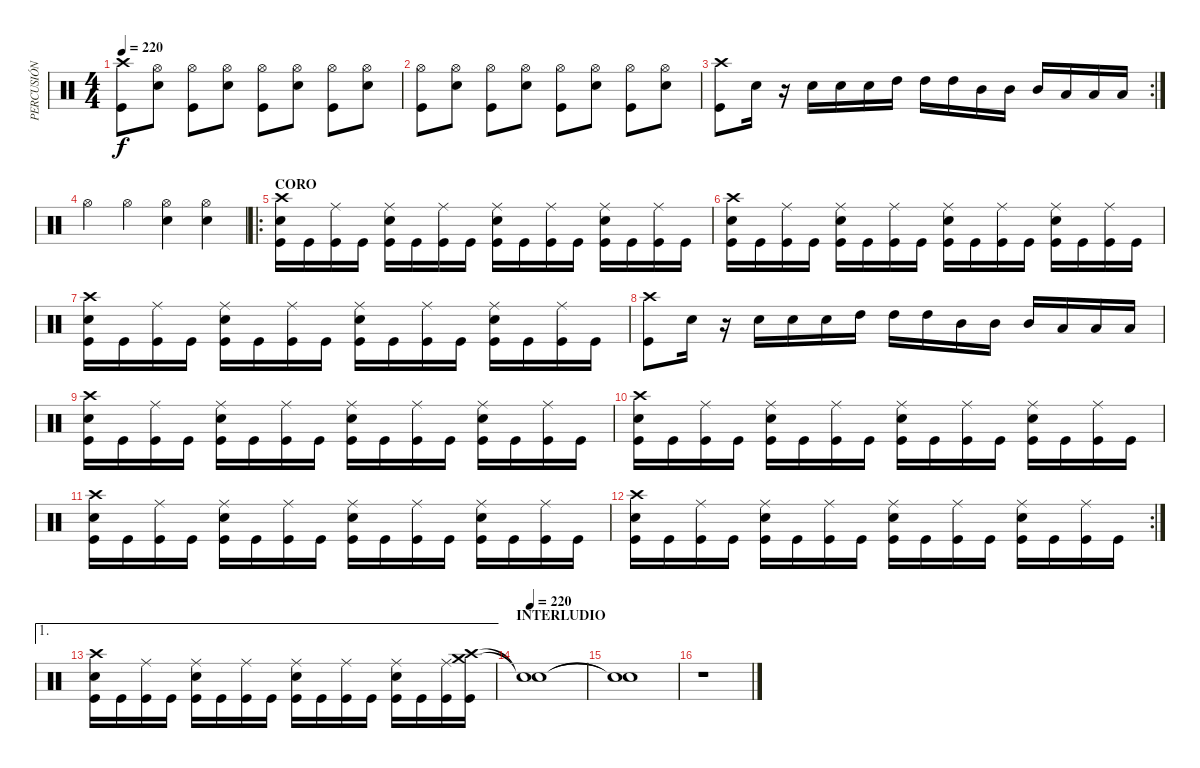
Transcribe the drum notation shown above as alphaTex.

\track ("PERCUSIÓN" "PERCUSIÓN") {instrument percussion}
\staff {score}
\articulation defaults
\ts (4 4)
\tempo 220
\clef neutral
\ks c
("Crash high (hit)" "Kick (hit)").8{dy f} ("Hi-Hat (open)" "Snare (hit) 2").8 ("Hi-Hat (open)" "Kick (hit)").8 ("Hi-Hat (open)" "Snare (hit) 2").8 ("Hi-Hat (open)" "Kick (hit)").8 ("Hi-Hat (open)" "Snare (hit) 2").8 ("Hi-Hat (open)" "Kick (hit)").8 ("Hi-Hat (open)" "Snare (hit) 2").8 |
("Hi-Hat (open)" "Kick (hit)").8 ("Hi-Hat (open)" "Snare (hit) 2").8 ("Hi-Hat (open)" "Kick (hit)").8 ("Hi-Hat (open)" "Snare (hit) 2").8 ("Hi-Hat (open)" "Kick (hit)").8 ("Hi-Hat (open)" "Snare (hit) 2").8 ("Hi-Hat (open)" "Kick (hit)").8 ("Hi-Hat (open)" "Snare (hit) 2").8 |
\rc 2
("Crash high (hit)" "Kick (hit)").8 "Snare (hit) 2".16 r.16 "Snare (hit) 2".16 "Snare (hit) 2".16 "Snare (hit) 2".16 "High Tom (hit)".16 "High Tom (hit)".16 "High Tom (hit)".16 "Mid Tom (hit)".16 "Mid Tom (hit)".16 "Mid Tom (hit)".16 "Low Tom (hit)".16 "Low Tom (hit)".16 "Low Tom (hit)".16 |
"Hi-Hat (open)".4 "Hi-Hat (open)".4 ("Hi-Hat (open)" "Snare (hit) 2").4 ("Hi-Hat (open)" "Snare (hit) 2").4 |
\ro
\section ("" "CORO")
("Crash high (hit)" "Snare (hit) 2" "Kick (hit)").16 "Kick (hit)".16 ("Ride (middle)" "Kick (hit)").16 "Kick (hit)".16 ("Ride (middle)" "Snare (hit) 2" "Kick (hit)").16 "Kick (hit)".16 ("Ride (middle)" "Kick (hit)").16 "Kick (hit)".16 ("Ride (middle)" "Snare (hit) 2" "Kick (hit)").16 "Kick (hit)".16 ("Ride (middle)" "Kick (hit)").16 "Kick (hit)".16 ("Ride (middle)" "Snare (hit) 2" "Kick (hit)").16 "Kick (hit)".16 ("Ride (middle)" "Kick (hit)").16 "Kick (hit)".16 |
("Crash high (hit)" "Snare (hit) 2" "Kick (hit)").16 "Kick (hit)".16 ("Ride (middle)" "Kick (hit)").16 "Kick (hit)".16 ("Ride (middle)" "Snare (hit) 2" "Kick (hit)").16 "Kick (hit)".16 ("Ride (middle)" "Kick (hit)").16 "Kick (hit)".16 ("Ride (middle)" "Snare (hit) 2" "Kick (hit)").16 "Kick (hit)".16 ("Ride (middle)" "Kick (hit)").16 "Kick (hit)".16 ("Ride (middle)" "Snare (hit) 2" "Kick (hit)").16 "Kick (hit)".16 ("Ride (middle)" "Kick (hit)").16 "Kick (hit)".16 |
("Crash high (hit)" "Snare (hit) 2" "Kick (hit)").16 "Kick (hit)".16 ("Ride (middle)" "Kick (hit)").16 "Kick (hit)".16 ("Ride (middle)" "Snare (hit) 2" "Kick (hit)").16 "Kick (hit)".16 ("Ride (middle)" "Kick (hit)").16 "Kick (hit)".16 ("Ride (middle)" "Snare (hit) 2" "Kick (hit)").16 "Kick (hit)".16 ("Ride (middle)" "Kick (hit)").16 "Kick (hit)".16 ("Ride (middle)" "Snare (hit) 2" "Kick (hit)").16 "Kick (hit)".16 ("Ride (middle)" "Kick (hit)").16 "Kick (hit)".16 |
("Crash high (hit)" "Kick (hit)").8 "Snare (hit) 2".16 r.16 "Snare (hit) 2".16 "Snare (hit) 2".16 "Snare (hit) 2".16 "High Tom (hit)".16 "High Tom (hit)".16 "High Tom (hit)".16 "Mid Tom (hit)".16 "Mid Tom (hit)".16 "Mid Tom (hit)".16 "Low Tom (hit)".16 "Low Tom (hit)".16 "Low Tom (hit)".16 |
("Crash high (hit)" "Snare (hit) 2" "Kick (hit)").16 "Kick (hit)".16 ("Ride (middle)" "Kick (hit)").16 "Kick (hit)".16 ("Ride (middle)" "Snare (hit) 2" "Kick (hit)").16 "Kick (hit)".16 ("Ride (middle)" "Kick (hit)").16 "Kick (hit)".16 ("Ride (middle)" "Snare (hit) 2" "Kick (hit)").16 "Kick (hit)".16 ("Ride (middle)" "Kick (hit)").16 "Kick (hit)".16 ("Ride (middle)" "Snare (hit) 2" "Kick (hit)").16 "Kick (hit)".16 ("Ride (middle)" "Kick (hit)").16 "Kick (hit)".16 |
("Crash high (hit)" "Snare (hit) 2" "Kick (hit)").16 "Kick (hit)".16 ("Ride (middle)" "Kick (hit)").16 "Kick (hit)".16 ("Ride (middle)" "Snare (hit) 2" "Kick (hit)").16 "Kick (hit)".16 ("Ride (middle)" "Kick (hit)").16 "Kick (hit)".16 ("Ride (middle)" "Snare (hit) 2" "Kick (hit)").16 "Kick (hit)".16 ("Ride (middle)" "Kick (hit)").16 "Kick (hit)".16 ("Ride (middle)" "Snare (hit) 2" "Kick (hit)").16 "Kick (hit)".16 ("Ride (middle)" "Kick (hit)").16 "Kick (hit)".16 |
("Crash high (hit)" "Snare (hit) 2" "Kick (hit)").16 "Kick (hit)".16 ("Ride (middle)" "Kick (hit)").16 "Kick (hit)".16 ("Ride (middle)" "Snare (hit) 2" "Kick (hit)").16 "Kick (hit)".16 ("Ride (middle)" "Kick (hit)").16 "Kick (hit)".16 ("Ride (middle)" "Snare (hit) 2" "Kick (hit)").16 "Kick (hit)".16 ("Ride (middle)" "Kick (hit)").16 "Kick (hit)".16 ("Ride (middle)" "Snare (hit) 2" "Kick (hit)").16 "Kick (hit)".16 ("Ride (middle)" "Kick (hit)").16 "Kick (hit)".16 |
\rc 2
("Crash high (hit)" "Snare (hit) 2" "Kick (hit)").16 "Kick (hit)".16 ("Ride (middle)" "Kick (hit)").16 "Kick (hit)".16 ("Ride (middle)" "Snare (hit) 2" "Kick (hit)").16 "Kick (hit)".16 ("Ride (middle)" "Kick (hit)").16 "Kick (hit)".16 ("Ride (middle)" "Snare (hit) 2" "Kick (hit)").16 "Kick (hit)".16 ("Ride (middle)" "Kick (hit)").16 "Kick (hit)".16 ("Ride (middle)" "Snare (hit) 2" "Kick (hit)").16 "Kick (hit)".16 ("Ride (middle)" "Kick (hit)").16 "Kick (hit)".16 |
\ae 1
("Crash high (hit)" "Snare (hit) 2" "Kick (hit)").16 "Kick (hit)".16 ("Ride (middle)" "Kick (hit)").16 "Kick (hit)".16 ("Ride (middle)" "Snare (hit) 2" "Kick (hit)").16 "Kick (hit)".16 ("Ride (middle)" "Kick (hit)").16 "Kick (hit)".16 ("Ride (middle)" "Snare (hit) 2" "Kick (hit)").16 "Kick (hit)".16 ("Ride (middle)" "Kick (hit)").16 "Kick (hit)".16 ("Ride (middle)" "Snare (hit) 2" "Kick (hit)").16 "Kick (hit)".16 ("Ride (middle)" "Kick (hit)").16 ("Crash medium (hit)" "Crash high (hit)" "Kick (hit)").16 |
\section ("" "INTERLUDIO")
\tempo 220
("Snare (hit)"{t} "Snare (hit)"{t}).1 |
("Snare (hit)"{t} "Snare (hit)"{t}).1 |
r.1
